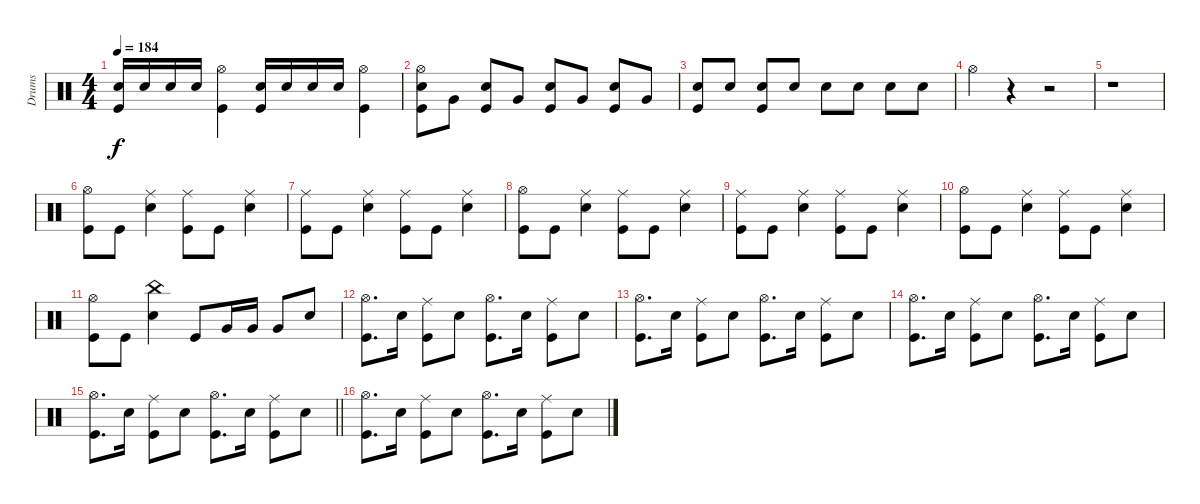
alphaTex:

\track (" Drums" " Drums") {instrument percussion}
\staff {score}
\articulation defaults
\ts (4 4)
\tempo 184
\clef neutral
\ks c
("Snare (hit) 2" "Kick (hit)").16{dy f} "Snare (hit) 2".16 "Snare (hit) 2".16 "Snare (hit) 2".16 ("Hi-Hat (open)" "Kick (hit)").4 ("Snare (hit) 2" "Kick (hit)").16 "Snare (hit) 2".16 "Snare (hit) 2".16 "Snare (hit) 2".16 ("Hi-Hat (open)" "Kick (hit)").4 |
("Snare (hit) 2" "Kick (hit)" "Hi-Hat (open)").8 "Very Low Tom (hit)".8 ("Snare (hit) 2" "Kick (hit)").8 "Very Low Tom (hit)".8 ("Snare (hit) 2" "Kick (hit)").8 "Very Low Tom (hit)".8 ("Snare (hit) 2" "Kick (hit)").8 "Very Low Tom (hit)".8 |
("Snare (hit) 2" "Kick (hit)").8 "Snare (hit) 2".8 ("Snare (hit) 2" "Kick (hit)").8 "Snare (hit) 2".8 "Snare (hit) 2".8 "Snare (hit) 2".8 "Snare (hit) 2".8 "Snare (hit) 2".8 |
"Hi-Hat (open)".4 r.4 r.2 |
r.1 |
("Kick (hit)" "Hi-Hat (open)").8 "Kick (hit)".8 ("Snare (hit) 2" "Ride (middle)").4 ("Kick (hit)" "Ride (middle)").8 "Kick (hit)".8 ("Snare (hit) 2" "Ride (middle)").4 |
("Kick (hit)" "Ride (middle)").8 "Kick (hit)".8 ("Snare (hit) 2" "Ride (middle)").4 ("Kick (hit)" "Ride (middle)").8 "Kick (hit)".8 ("Snare (hit) 2" "Ride (middle)").4 |
("Kick (hit)" "Hi-Hat (open)").8 "Kick (hit)".8 ("Snare (hit) 2" "Ride (middle)").4 ("Kick (hit)" "Ride (middle)").8 "Kick (hit)".8 ("Snare (hit) 2" "Ride (middle)").4 |
("Kick (hit)" "Ride (middle)").8 "Kick (hit)".8 ("Snare (hit) 2" "Ride (middle)").4 ("Kick (hit)" "Ride (middle)").8 "Kick (hit)".8 ("Snare (hit) 2" "Ride (middle)").4 |
("Kick (hit)" "Hi-Hat (open)").8 "Kick (hit)".8 ("Snare (hit) 2" "Ride (middle)").4 ("Kick (hit)" "Ride (middle)").8 "Kick (hit)".8 ("Snare (hit) 2" "Ride (middle)").4 |
("Kick (hit)" "Hi-Hat (open)").8 "Kick (hit)".8 ("Snare (hit) 2" "China (hit)").4 "Kick (hit)".8 "Very Low Tom (hit)".16 "Very Low Tom (hit)".16 "Very Low Tom (hit)".8 "Snare (hit) 2".8 |
("Kick (hit)" "Hi-Hat (open)").8{d} "Snare (hit) 2".16 ("Kick (hit)" "Ride (middle)").8 "Snare (hit) 2".8 ("Kick (hit)" "Hi-Hat (open)").8{d} "Snare (hit) 2".16 ("Kick (hit)" "Ride (middle)").8 "Snare (hit) 2".8 |
("Kick (hit)" "Hi-Hat (open)").8{d} "Snare (hit) 2".16 ("Kick (hit)" "Ride (middle)").8 "Snare (hit) 2".8 ("Kick (hit)" "Hi-Hat (open)").8{d} "Snare (hit) 2".16 ("Kick (hit)" "Ride (middle)").8 "Snare (hit) 2".8 |
("Kick (hit)" "Hi-Hat (open)").8{d} "Snare (hit) 2".16 ("Kick (hit)" "Ride (middle)").8 "Snare (hit) 2".8 ("Kick (hit)" "Hi-Hat (open)").8{d} "Snare (hit) 2".16 ("Kick (hit)" "Ride (middle)").8 "Snare (hit) 2".8 |
\barLineRight lightlight
("Kick (hit)" "Hi-Hat (open)").8{d} "Snare (hit) 2".16 ("Kick (hit)" "Ride (middle)").8 "Snare (hit) 2".8 ("Kick (hit)" "Hi-Hat (open)").8{d} "Snare (hit) 2".16 ("Kick (hit)" "Ride (middle)").8 "Snare (hit) 2".8 |
("Kick (hit)" "Hi-Hat (open)").8{d} "Snare (hit) 2".16 ("Kick (hit)" "Ride (middle)").8 "Snare (hit) 2".8 ("Kick (hit)" "Hi-Hat (open)").8{d} "Snare (hit) 2".16 ("Kick (hit)" "Ride (middle)").8 "Snare (hit) 2".8
